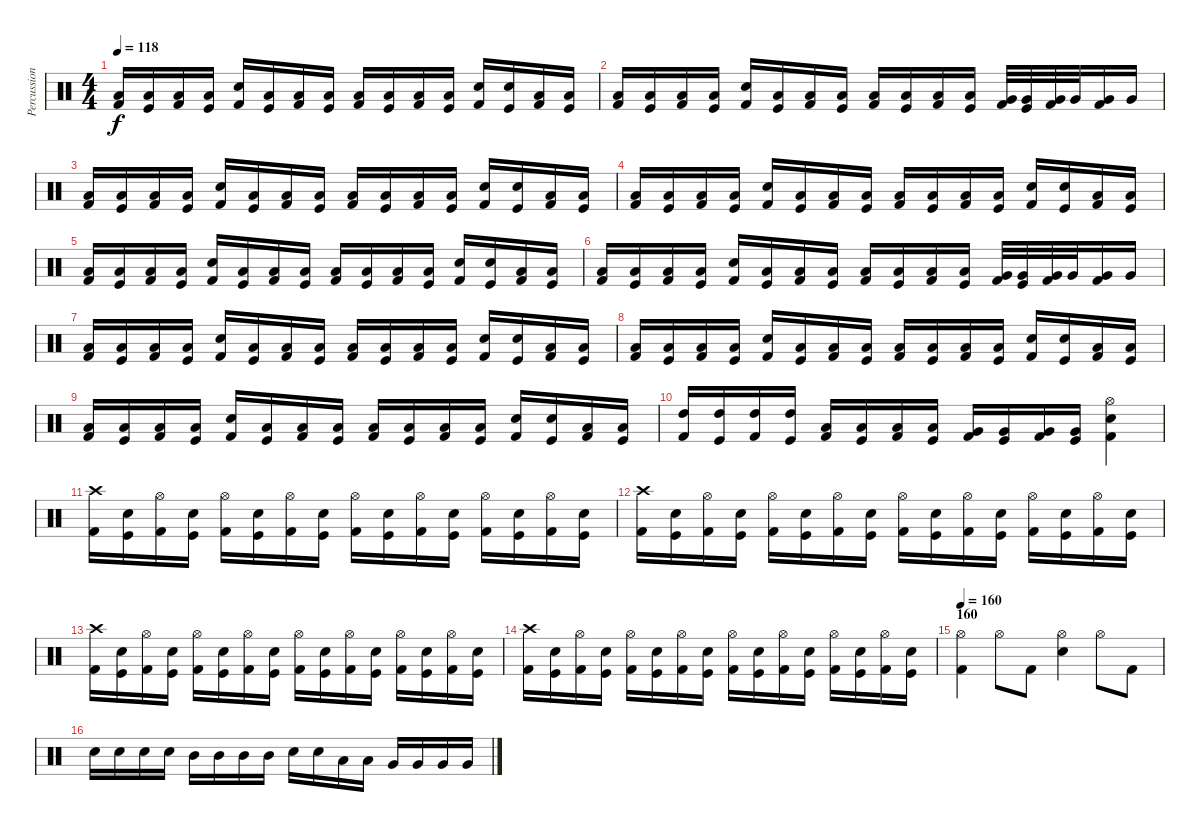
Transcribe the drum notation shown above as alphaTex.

\track ("Percussion" "Percussion") {instrument percussion}
\staff {score}
\articulation defaults
\ts (4 4)
\tempo 118
\clef neutral
\ks c
("Low Tom (hit)" "Kick (hit) 2").16{dy f} ("Low Tom (hit)" "Kick (hit)").16 ("Low Tom (hit)" "Kick (hit) 2").16 ("Low Tom (hit)" "Kick (hit)").16 ("Snare (hit) 2" "Kick (hit) 2").16 ("Low Tom (hit)" "Kick (hit)").16 ("Low Tom (hit)" "Kick (hit) 2").16 ("Low Tom (hit)" "Kick (hit)").16 ("Low Tom (hit)" "Kick (hit) 2").16 ("Low Tom (hit)" "Kick (hit)").16 ("Low Tom (hit)" "Kick (hit) 2").16 ("Low Tom (hit)" "Kick (hit)").16 ("Snare (hit) 2" "Kick (hit) 2").16 ("Snare (hit) 2" "Kick (hit)").16 ("Low Tom (hit)" "Kick (hit) 2").16 ("Low Tom (hit)" "Kick (hit)").16 |
("Low Tom (hit)" "Kick (hit) 2").16 ("Low Tom (hit)" "Kick (hit)").16 ("Low Tom (hit)" "Kick (hit) 2").16 ("Low Tom (hit)" "Kick (hit)").16 ("Snare (hit) 2" "Kick (hit) 2").16 ("Low Tom (hit)" "Kick (hit)").16 ("Low Tom (hit)" "Kick (hit) 2").16 ("Low Tom (hit)" "Kick (hit)").16 ("Low Tom (hit)" "Kick (hit) 2").16 ("Low Tom (hit)" "Kick (hit)").16 ("Low Tom (hit)" "Kick (hit) 2").16 ("Low Tom (hit)" "Kick (hit)").16 ("Very Low Tom (hit)" "Kick (hit) 2").32 ("Very Low Tom (hit)" "Kick (hit)").32 ("Very Low Tom (hit)" "Kick (hit) 2").32 "Very Low Tom (hit)".32 ("Very Low Tom (hit)" "Kick (hit) 2").16 "Very Low Tom (hit)".16 |
("Low Tom (hit)" "Kick (hit) 2").16 ("Low Tom (hit)" "Kick (hit)").16 ("Low Tom (hit)" "Kick (hit) 2").16 ("Low Tom (hit)" "Kick (hit)").16 ("Snare (hit) 2" "Kick (hit) 2").16 ("Low Tom (hit)" "Kick (hit)").16 ("Low Tom (hit)" "Kick (hit) 2").16 ("Low Tom (hit)" "Kick (hit)").16 ("Low Tom (hit)" "Kick (hit) 2").16 ("Low Tom (hit)" "Kick (hit)").16 ("Low Tom (hit)" "Kick (hit) 2").16 ("Low Tom (hit)" "Kick (hit)").16 ("Snare (hit) 2" "Kick (hit) 2").16 ("Snare (hit) 2" "Kick (hit)").16 ("Low Tom (hit)" "Kick (hit) 2").16 ("Low Tom (hit)" "Kick (hit)").16 |
("Low Tom (hit)" "Kick (hit) 2").16 ("Low Tom (hit)" "Kick (hit)").16 ("Low Tom (hit)" "Kick (hit) 2").16 ("Low Tom (hit)" "Kick (hit)").16 ("Snare (hit) 2" "Kick (hit) 2").16 ("Low Tom (hit)" "Kick (hit)").16 ("Low Tom (hit)" "Kick (hit) 2").16 ("Low Tom (hit)" "Kick (hit)").16 ("Low Tom (hit)" "Kick (hit) 2").16 ("Low Tom (hit)" "Kick (hit)").16 ("Low Tom (hit)" "Kick (hit) 2").16 ("Low Tom (hit)" "Kick (hit)").16 ("Snare (hit) 2" "Kick (hit) 2").16 ("Snare (hit) 2" "Kick (hit)").16 ("Low Tom (hit)" "Kick (hit) 2").16 ("Low Tom (hit)" "Kick (hit)").16 |
("Low Tom (hit)" "Kick (hit) 2").16 ("Low Tom (hit)" "Kick (hit)").16 ("Low Tom (hit)" "Kick (hit) 2").16 ("Low Tom (hit)" "Kick (hit)").16 ("Snare (hit) 2" "Kick (hit) 2").16 ("Low Tom (hit)" "Kick (hit)").16 ("Low Tom (hit)" "Kick (hit) 2").16 ("Low Tom (hit)" "Kick (hit)").16 ("Low Tom (hit)" "Kick (hit) 2").16 ("Low Tom (hit)" "Kick (hit)").16 ("Low Tom (hit)" "Kick (hit) 2").16 ("Low Tom (hit)" "Kick (hit)").16 ("Snare (hit) 2" "Kick (hit) 2").16 ("Snare (hit) 2" "Kick (hit)").16 ("Low Tom (hit)" "Kick (hit) 2").16 ("Low Tom (hit)" "Kick (hit)").16 |
("Low Tom (hit)" "Kick (hit) 2").16 ("Low Tom (hit)" "Kick (hit)").16 ("Low Tom (hit)" "Kick (hit) 2").16 ("Low Tom (hit)" "Kick (hit)").16 ("Snare (hit) 2" "Kick (hit) 2").16 ("Low Tom (hit)" "Kick (hit)").16 ("Low Tom (hit)" "Kick (hit) 2").16 ("Low Tom (hit)" "Kick (hit)").16 ("Low Tom (hit)" "Kick (hit) 2").16 ("Low Tom (hit)" "Kick (hit)").16 ("Low Tom (hit)" "Kick (hit) 2").16 ("Low Tom (hit)" "Kick (hit)").16 ("Very Low Tom (hit)" "Kick (hit) 2").32 ("Very Low Tom (hit)" "Kick (hit)").32 ("Very Low Tom (hit)" "Kick (hit) 2").32 "Very Low Tom (hit)".32 ("Very Low Tom (hit)" "Kick (hit) 2").16 "Very Low Tom (hit)".16 |
("Low Tom (hit)" "Kick (hit) 2").16 ("Low Tom (hit)" "Kick (hit)").16 ("Low Tom (hit)" "Kick (hit) 2").16 ("Low Tom (hit)" "Kick (hit)").16 ("Snare (hit) 2" "Kick (hit) 2").16 ("Low Tom (hit)" "Kick (hit)").16 ("Low Tom (hit)" "Kick (hit) 2").16 ("Low Tom (hit)" "Kick (hit)").16 ("Low Tom (hit)" "Kick (hit) 2").16 ("Low Tom (hit)" "Kick (hit)").16 ("Low Tom (hit)" "Kick (hit) 2").16 ("Low Tom (hit)" "Kick (hit)").16 ("Snare (hit) 2" "Kick (hit) 2").16 ("Snare (hit) 2" "Kick (hit)").16 ("Low Tom (hit)" "Kick (hit) 2").16 ("Low Tom (hit)" "Kick (hit)").16 |
("Low Tom (hit)" "Kick (hit) 2").16 ("Low Tom (hit)" "Kick (hit)").16 ("Low Tom (hit)" "Kick (hit) 2").16 ("Low Tom (hit)" "Kick (hit)").16 ("Snare (hit) 2" "Kick (hit) 2").16 ("Low Tom (hit)" "Kick (hit)").16 ("Low Tom (hit)" "Kick (hit) 2").16 ("Low Tom (hit)" "Kick (hit)").16 ("Low Tom (hit)" "Kick (hit) 2").16 ("Low Tom (hit)" "Kick (hit)").16 ("Low Tom (hit)" "Kick (hit) 2").16 ("Low Tom (hit)" "Kick (hit)").16 ("Snare (hit) 2" "Kick (hit) 2").16 ("Snare (hit) 2" "Kick (hit)").16 ("Low Tom (hit)" "Kick (hit) 2").16 ("Low Tom (hit)" "Kick (hit)").16 |
("Low Tom (hit)" "Kick (hit) 2").16 ("Low Tom (hit)" "Kick (hit)").16 ("Low Tom (hit)" "Kick (hit) 2").16 ("Low Tom (hit)" "Kick (hit)").16 ("Snare (hit) 2" "Kick (hit) 2").16 ("Low Tom (hit)" "Kick (hit)").16 ("Low Tom (hit)" "Kick (hit) 2").16 ("Low Tom (hit)" "Kick (hit)").16 ("Low Tom (hit)" "Kick (hit) 2").16 ("Low Tom (hit)" "Kick (hit)").16 ("Low Tom (hit)" "Kick (hit) 2").16 ("Low Tom (hit)" "Kick (hit)").16 ("Snare (hit) 2" "Kick (hit) 2").16 ("Snare (hit) 2" "Kick (hit)").16 ("Low Tom (hit)" "Kick (hit) 2").16 ("Low Tom (hit)" "Kick (hit)").16 |
("High Tom (hit)" "Kick (hit) 2").16 ("High Tom (hit)" "Kick (hit)").16 ("High Tom (hit)" "Kick (hit) 2").16 ("High Tom (hit)" "Kick (hit)").16 ("Low Tom (hit)" "Kick (hit) 2").16 ("Low Tom (hit)" "Kick (hit)").16 ("Low Tom (hit)" "Kick (hit) 2").16 ("Low Tom (hit)" "Kick (hit)").16 ("Very Low Tom (hit)" "Kick (hit) 2").16 ("Very Low Tom (hit)" "Kick (hit)").16 ("Very Low Tom (hit)" "Kick (hit) 2").16 ("Very Low Tom (hit)" "Kick (hit)").16 ("Snare (hit) 2" "Kick (hit) 2" "Hi-Hat (open)").4 |
("Kick (hit) 2" "Crash high (hit)").16 ("Kick (hit)" "Snare (hit) 2").16 ("Kick (hit) 2" "Hi-Hat (open)").16 ("Kick (hit)" "Snare (hit) 2").16 ("Kick (hit) 2" "Hi-Hat (open)").16 ("Kick (hit)" "Snare (hit) 2").16 ("Kick (hit) 2" "Hi-Hat (open)").16 ("Kick (hit)" "Snare (hit) 2").16 ("Kick (hit) 2" "Hi-Hat (open)").16 ("Kick (hit)" "Snare (hit) 2").16 ("Kick (hit) 2" "Hi-Hat (open)").16 ("Kick (hit)" "Snare (hit) 2").16 ("Kick (hit) 2" "Hi-Hat (open)").16 ("Kick (hit)" "Snare (hit) 2").16 ("Kick (hit) 2" "Hi-Hat (open)").16 ("Kick (hit)" "Snare (hit) 2").16 |
("Kick (hit) 2" "Crash high (hit)").16 ("Kick (hit)" "Snare (hit) 2").16 ("Kick (hit) 2" "Hi-Hat (open)").16 ("Kick (hit)" "Snare (hit) 2").16 ("Kick (hit) 2" "Hi-Hat (open)").16 ("Kick (hit)" "Snare (hit) 2").16 ("Kick (hit) 2" "Hi-Hat (open)").16 ("Kick (hit)" "Snare (hit) 2").16 ("Kick (hit) 2" "Hi-Hat (open)").16 ("Kick (hit)" "Snare (hit) 2").16 ("Kick (hit) 2" "Hi-Hat (open)").16 ("Kick (hit)" "Snare (hit) 2").16 ("Kick (hit) 2" "Hi-Hat (open)").16 ("Kick (hit)" "Snare (hit) 2").16 ("Kick (hit) 2" "Hi-Hat (open)").16 ("Kick (hit)" "Snare (hit) 2").16 |
("Kick (hit) 2" "Crash high (hit)").16 ("Kick (hit)" "Snare (hit) 2").16 ("Kick (hit) 2" "Hi-Hat (open)").16 ("Kick (hit)" "Snare (hit) 2").16 ("Kick (hit) 2" "Hi-Hat (open)").16 ("Kick (hit)" "Snare (hit) 2").16 ("Kick (hit) 2" "Hi-Hat (open)").16 ("Kick (hit)" "Snare (hit) 2").16 ("Kick (hit) 2" "Hi-Hat (open)").16 ("Kick (hit)" "Snare (hit) 2").16 ("Kick (hit) 2" "Hi-Hat (open)").16 ("Kick (hit)" "Snare (hit) 2").16 ("Kick (hit) 2" "Hi-Hat (open)").16 ("Kick (hit)" "Snare (hit) 2").16 ("Kick (hit) 2" "Hi-Hat (open)").16 ("Kick (hit)" "Snare (hit) 2").16 |
("Kick (hit) 2" "Crash high (hit)").16 ("Kick (hit)" "Snare (hit) 2").16 ("Kick (hit) 2" "Hi-Hat (open)").16 ("Kick (hit)" "Snare (hit) 2").16 ("Kick (hit) 2" "Hi-Hat (open)").16 ("Kick (hit)" "Snare (hit) 2").16 ("Kick (hit) 2" "Hi-Hat (open)").16 ("Kick (hit)" "Snare (hit) 2").16 ("Kick (hit) 2" "Hi-Hat (open)").16 ("Kick (hit)" "Snare (hit) 2").16 ("Kick (hit) 2" "Hi-Hat (open)").16 ("Kick (hit)" "Snare (hit) 2").16 ("Kick (hit) 2" "Hi-Hat (open)").16 ("Kick (hit)" "Snare (hit) 2").16 ("Kick (hit) 2" "Hi-Hat (open)").16 ("Kick (hit)" "Snare (hit) 2").16 |
\section ("" "160")
\tempo 160
("Kick (hit) 2" "Hi-Hat (open)").4 "Hi-Hat (open)".8 "Kick (hit) 2".8 ("Snare (hit) 2" "Hi-Hat (open)").4 "Hi-Hat (open)".8 "Kick (hit) 2".8 |
"Snare (hit) 2".16 "Snare (hit) 2".16 "Snare (hit) 2".16 "Snare (hit) 2".16 "Mid Tom (hit)".16 "Mid Tom (hit)".16 "Mid Tom (hit)".16 "Mid Tom (hit)".16 "Snare (hit) 2".16 "Snare (hit) 2".16 "Low Tom (hit)".16 "Low Tom (hit)".16 "Very Low Tom (hit)".16 "Very Low Tom (hit)".16 "Very Low Tom (hit)".16 "Very Low Tom (hit)".16
